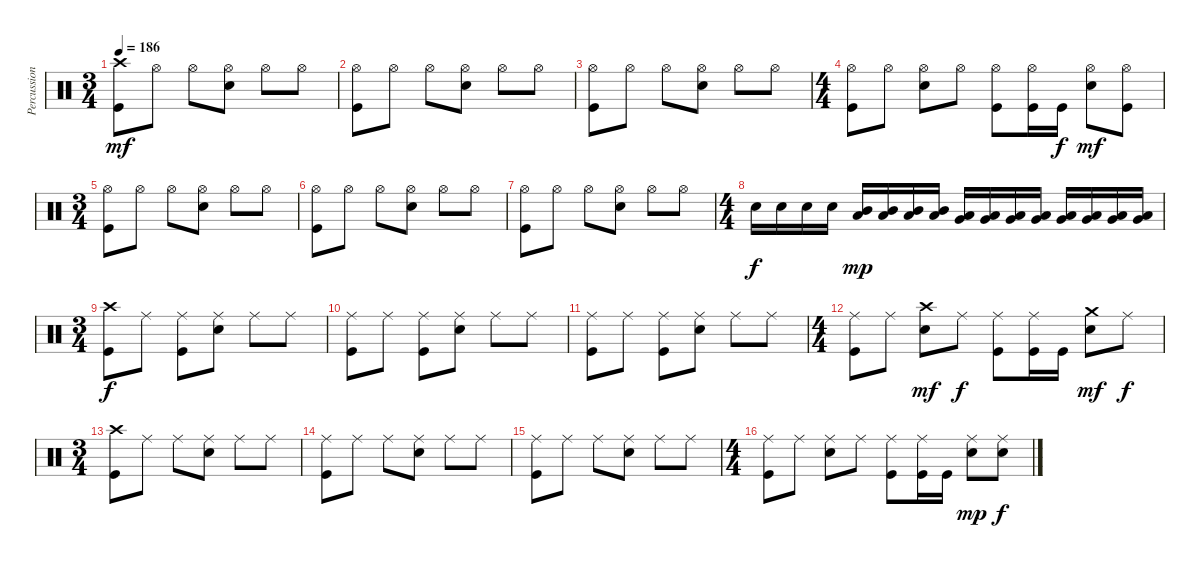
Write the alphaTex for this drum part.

\track ("Percussions" "Percussion") {instrument percussion}
\staff {score}
\articulation defaults
\ts (3 4)
\tempo 186
\clef neutral
\ks c
("Kick (hit)" "Crash high (hit)").8{dy mf} "Hi-Hat (open)".8 "Hi-Hat (open)".8 ("Electric Snare (hit)" "Hi-Hat (open)").8 "Hi-Hat (open)".8 "Hi-Hat (open)".8 |
("Kick (hit)" "Hi-Hat (open)").8 "Hi-Hat (open)".8 "Hi-Hat (open)".8 ("Electric Snare (hit)" "Hi-Hat (open)").8 "Hi-Hat (open)".8 "Hi-Hat (open)".8 |
("Kick (hit)" "Hi-Hat (open)").8 "Hi-Hat (open)".8 "Hi-Hat (open)".8 ("Electric Snare (hit)" "Hi-Hat (open)").8 "Hi-Hat (open)".8 "Hi-Hat (open)".8 |
\ts (4 4)
("Kick (hit)" "Hi-Hat (open)").8 "Hi-Hat (open)".8 ("Electric Snare (hit)" "Hi-Hat (open)").8 "Hi-Hat (open)".8 ("Kick (hit)" "Hi-Hat (open)").8 ("Kick (hit)" "Hi-Hat (open)").16 "Kick (hit)".16{dy f} ("Electric Snare (hit)" "Hi-Hat (open)").8{dy mf} ("Kick (hit)" "Hi-Hat (open)").8 |
\ts (3 4)
("Kick (hit)" "Hi-Hat (open)").8 "Hi-Hat (open)".8 "Hi-Hat (open)".8 ("Electric Snare (hit)" "Hi-Hat (open)").8 "Hi-Hat (open)".8 "Hi-Hat (open)".8 |
("Kick (hit)" "Hi-Hat (open)").8 "Hi-Hat (open)".8 "Hi-Hat (open)".8 ("Electric Snare (hit)" "Hi-Hat (open)").8 "Hi-Hat (open)".8 "Hi-Hat (open)".8 |
("Kick (hit)" "Hi-Hat (open)").8 "Hi-Hat (open)".8 "Hi-Hat (open)".8 ("Electric Snare (hit)" "Hi-Hat (open)").8 "Hi-Hat (open)".8 "Hi-Hat (open)".8 |
\ts (4 4)
"Electric Snare (hit)".16{dy f} "Electric Snare (hit)".16 "Electric Snare (hit)".16 "Electric Snare (hit)".16 ("Low Tom (hit)" "Mid Tom (hit)").16{dy mp} ("Low Tom (hit)" "Mid Tom (hit)").16 ("Low Tom (hit)" "Mid Tom (hit)").16 ("Low Tom (hit)" "Mid Tom (hit)").16 ("Very Low Tom (hit)" "Low Tom (hit)").16 ("Very Low Tom (hit)" "Low Tom (hit)").16 ("Very Low Tom (hit)" "Low Tom (hit)").16 ("Very Low Tom (hit)" "Low Tom (hit)").16 ("Low Floor Tom (hit)" "Very Low Tom (hit)").16 ("Low Floor Tom (hit)" "Very Low Tom (hit)").16 ("Low Floor Tom (hit)" "Very Low Tom (hit)").16 ("Low Floor Tom (hit)" "Very Low Tom (hit)").16 |
\ts (3 4)
("Kick (hit)" "Crash high (hit)").8{dy f} "Ride (middle)".8 ("Kick (hit)" "Ride (middle)").8 ("Electric Snare (hit)" "Ride (middle)").8 "Ride (middle)".8 "Ride (middle)".8 |
("Kick (hit)" "Ride (middle)").8 "Ride (middle)".8 ("Kick (hit)" "Ride (middle)").8 ("Electric Snare (hit)" "Ride (middle)").8 "Ride (middle)".8 "Ride (middle)".8 |
("Kick (hit)" "Ride (middle)").8 "Ride (middle)".8 ("Kick (hit)" "Ride (middle)").8 ("Electric Snare (hit)" "Ride (middle)").8 "Ride (middle)".8 "Ride (middle)".8 |
\ts (4 4)
("Kick (hit)" "Ride (middle)").8 "Ride (middle)".8 ("Electric Snare (hit)" "Crash high (hit)").8{dy mf} "Ride (middle)".8{dy f} ("Kick (hit)" "Ride (middle)").8 ("Kick (hit)" "Ride (middle)").16 "Kick (hit)".16 ("Electric Snare (hit)" "Crash medium (hit)").8{dy mf} "Ride (middle)".8{dy f} |
\ts (3 4)
("Kick (hit)" "Crash high (hit)").8 "Ride (middle)".8 "Ride (middle)".8 ("Electric Snare (hit)" "Ride (middle)").8 "Ride (middle)".8 "Ride (middle)".8 |
("Kick (hit)" "Ride (middle)").8 "Ride (middle)".8 "Ride (middle)".8 ("Electric Snare (hit)" "Ride (middle)").8 "Ride (middle)".8 "Ride (middle)".8 |
("Kick (hit)" "Ride (middle)").8 "Ride (middle)".8 "Ride (middle)".8 ("Electric Snare (hit)" "Ride (middle)").8 "Ride (middle)".8 "Ride (middle)".8 |
\ts (4 4)
("Kick (hit)" "Ride (middle)").8 "Ride (middle)".8 ("Electric Snare (hit)" "Ride (middle)").8 "Ride (middle)".8 ("Kick (hit)" "Ride (middle)").8 ("Kick (hit)" "Ride (middle)").16 "Kick (hit)".16 ("Electric Snare (hit)" "Ride (middle)").8{dy mp} ("Electric Snare (hit)" "Ride (middle)").8{dy f}
